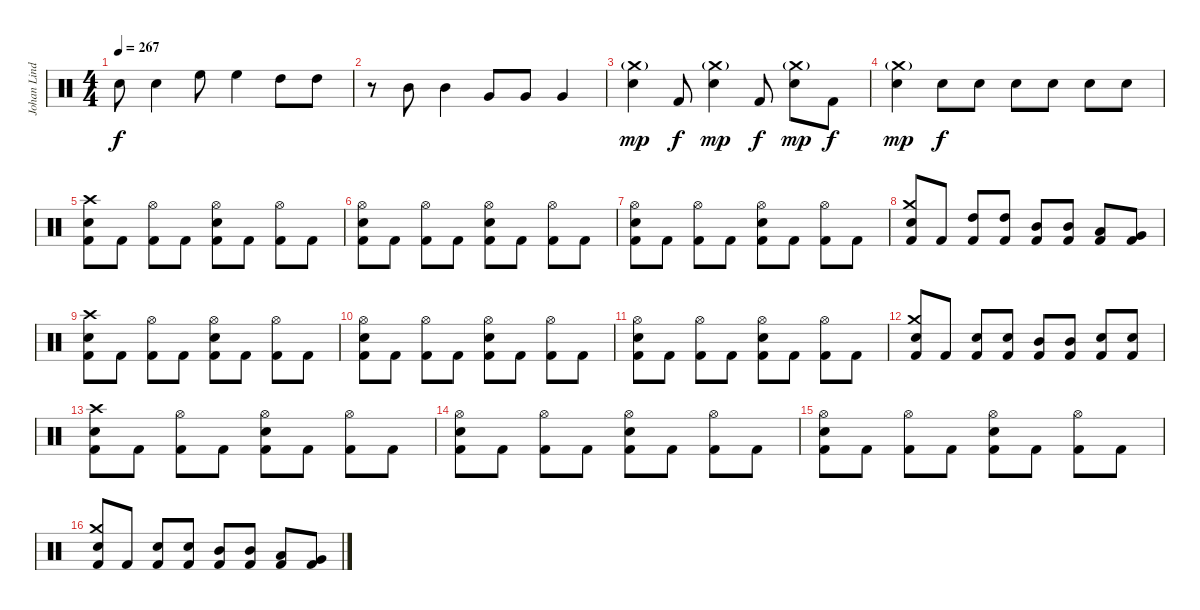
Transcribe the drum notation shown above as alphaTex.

\track ("Johan Lindstrand" "Johan Lind") {instrument percussion}
\staff {score}
\articulation defaults
\ts (4 4)
\tempo 267
\clef neutral
\ks c "Electric Snare (hit)".8{dy f} "Electric Snare (hit)".4 "High Floor Tom (hit)".8 "High Floor Tom (hit)".4 "High Tom (hit)".8 "High Tom (hit)".8
|
r.8 "Mid Tom (hit)".8 "Mid Tom (hit)".4 "Very Low Tom (hit)".8 "Very Low Tom (hit)".8 "Very Low Tom (hit)".4 |
("Crash medium (hit)"{g} "Electric Snare (hit)").4{dy mp} "Kick (hit) 2".8{dy f} ("Crash medium (hit)"{g} "Electric Snare (hit)").4{dy mp} "Kick (hit) 2".8{dy f} ("Crash medium (hit)"{g} "Electric Snare (hit)").8{dy mp} "Kick (hit) 2".8{dy f} |
("Crash medium (hit)"{g} "Electric Snare (hit)").4{dy mp} "Electric Snare (hit)".8{dy f} "Electric Snare (hit)".8 "Electric Snare (hit)".8 "Electric Snare (hit)".8 "Electric Snare (hit)".8 "Electric Snare (hit)".8 |
("Crash high (hit)" "Electric Snare (hit)" "Kick (hit) 2").8 "Kick (hit) 2".8 ("Hi-Hat (open)" "Kick (hit) 2").8 "Kick (hit) 2".8 ("Hi-Hat (open)" "Electric Snare (hit)" "Kick (hit) 2").8 "Kick (hit) 2".8 ("Hi-Hat (open)" "Kick (hit) 2").8 "Kick (hit) 2".8 |
("Hi-Hat (open)" "Electric Snare (hit)" "Kick (hit) 2").8 "Kick (hit) 2".8 ("Hi-Hat (open)" "Kick (hit) 2").8 "Kick (hit) 2".8 ("Hi-Hat (open)" "Electric Snare (hit)" "Kick (hit) 2").8 "Kick (hit) 2".8 ("Hi-Hat (open)" "Kick (hit) 2").8 "Kick (hit) 2".8 |
("Hi-Hat (open)" "Electric Snare (hit)" "Kick (hit) 2").8 "Kick (hit) 2".8 ("Hi-Hat (open)" "Kick (hit) 2").8 "Kick (hit) 2".8 ("Hi-Hat (open)" "Electric Snare (hit)" "Kick (hit) 2").8 "Kick (hit) 2".8 ("Hi-Hat (open)" "Kick (hit) 2").8 "Kick (hit) 2".8 |
("Crash medium (hit)" "Electric Snare (hit)" "Kick (hit) 2").8 "Kick (hit) 2".8 ("High Tom (hit)" "Kick (hit) 2").8 ("High Tom (hit)" "Kick (hit) 2").8 ("Mid Tom (hit)" "Kick (hit) 2").8 ("Mid Tom (hit)" "Kick (hit) 2").8 ("Low Tom (hit)" "Kick (hit) 2").8 ("Very Low Tom (hit)" "Kick (hit) 2").8 |
("Crash high (hit)" "Electric Snare (hit)" "Kick (hit) 2").8 "Kick (hit) 2".8 ("Hi-Hat (open)" "Kick (hit) 2").8 "Kick (hit) 2".8 ("Hi-Hat (open)" "Electric Snare (hit)" "Kick (hit) 2").8 "Kick (hit) 2".8 ("Hi-Hat (open)" "Kick (hit) 2").8 "Kick (hit) 2".8 |
("Hi-Hat (open)" "Electric Snare (hit)" "Kick (hit) 2").8 "Kick (hit) 2".8 ("Hi-Hat (open)" "Kick (hit) 2").8 "Kick (hit) 2".8 ("Hi-Hat (open)" "Electric Snare (hit)" "Kick (hit) 2").8 "Kick (hit) 2".8 ("Hi-Hat (open)" "Kick (hit) 2").8 "Kick (hit) 2".8 |
("Hi-Hat (open)" "Electric Snare (hit)" "Kick (hit) 2").8 "Kick (hit) 2".8 ("Hi-Hat (open)" "Kick (hit) 2").8 "Kick (hit) 2".8 ("Hi-Hat (open)" "Electric Snare (hit)" "Kick (hit) 2").8 "Kick (hit) 2".8 ("Hi-Hat (open)" "Kick (hit) 2").8 "Kick (hit) 2".8 |
("Crash medium (hit)" "Electric Snare (hit)" "Kick (hit) 2").8 "Kick (hit) 2".8 ("Electric Snare (hit)" "Kick (hit) 2").8 ("Electric Snare (hit)" "Kick (hit) 2").8 ("Mid Tom (hit)" "Kick (hit) 2").8 ("Mid Tom (hit)" "Kick (hit) 2").8 ("Electric Snare (hit)" "Kick (hit) 2").8 ("Electric Snare (hit)" "Kick (hit) 2").8 |
("Crash high (hit)" "Electric Snare (hit)" "Kick (hit) 2").8 "Kick (hit) 2".8 ("Hi-Hat (open)" "Kick (hit) 2").8 "Kick (hit) 2".8 ("Hi-Hat (open)" "Electric Snare (hit)" "Kick (hit) 2").8 "Kick (hit) 2".8 ("Hi-Hat (open)" "Kick (hit) 2").8 "Kick (hit) 2".8 |
("Hi-Hat (open)" "Electric Snare (hit)" "Kick (hit) 2").8 "Kick (hit) 2".8 ("Hi-Hat (open)" "Kick (hit) 2").8 "Kick (hit) 2".8 ("Hi-Hat (open)" "Electric Snare (hit)" "Kick (hit) 2").8 "Kick (hit) 2".8 ("Hi-Hat (open)" "Kick (hit) 2").8 "Kick (hit) 2".8 |
("Hi-Hat (open)" "Electric Snare (hit)" "Kick (hit) 2").8 "Kick (hit) 2".8 ("Hi-Hat (open)" "Kick (hit) 2").8 "Kick (hit) 2".8 ("Hi-Hat (open)" "Electric Snare (hit)" "Kick (hit) 2").8 "Kick (hit) 2".8 ("Hi-Hat (open)" "Kick (hit) 2").8 "Kick (hit) 2".8 |
("Crash medium (hit)" "Electric Snare (hit)" "Kick (hit) 2").8 "Kick (hit) 2".8 ("Electric Snare (hit)" "Kick (hit) 2").8 ("Electric Snare (hit)" "Kick (hit) 2").8 ("Mid Tom (hit)" "Kick (hit) 2").8 ("Mid Tom (hit)" "Kick (hit) 2").8 ("Low Tom (hit)" "Kick (hit) 2").8 ("Very Low Tom (hit)" "Kick (hit) 2").8
